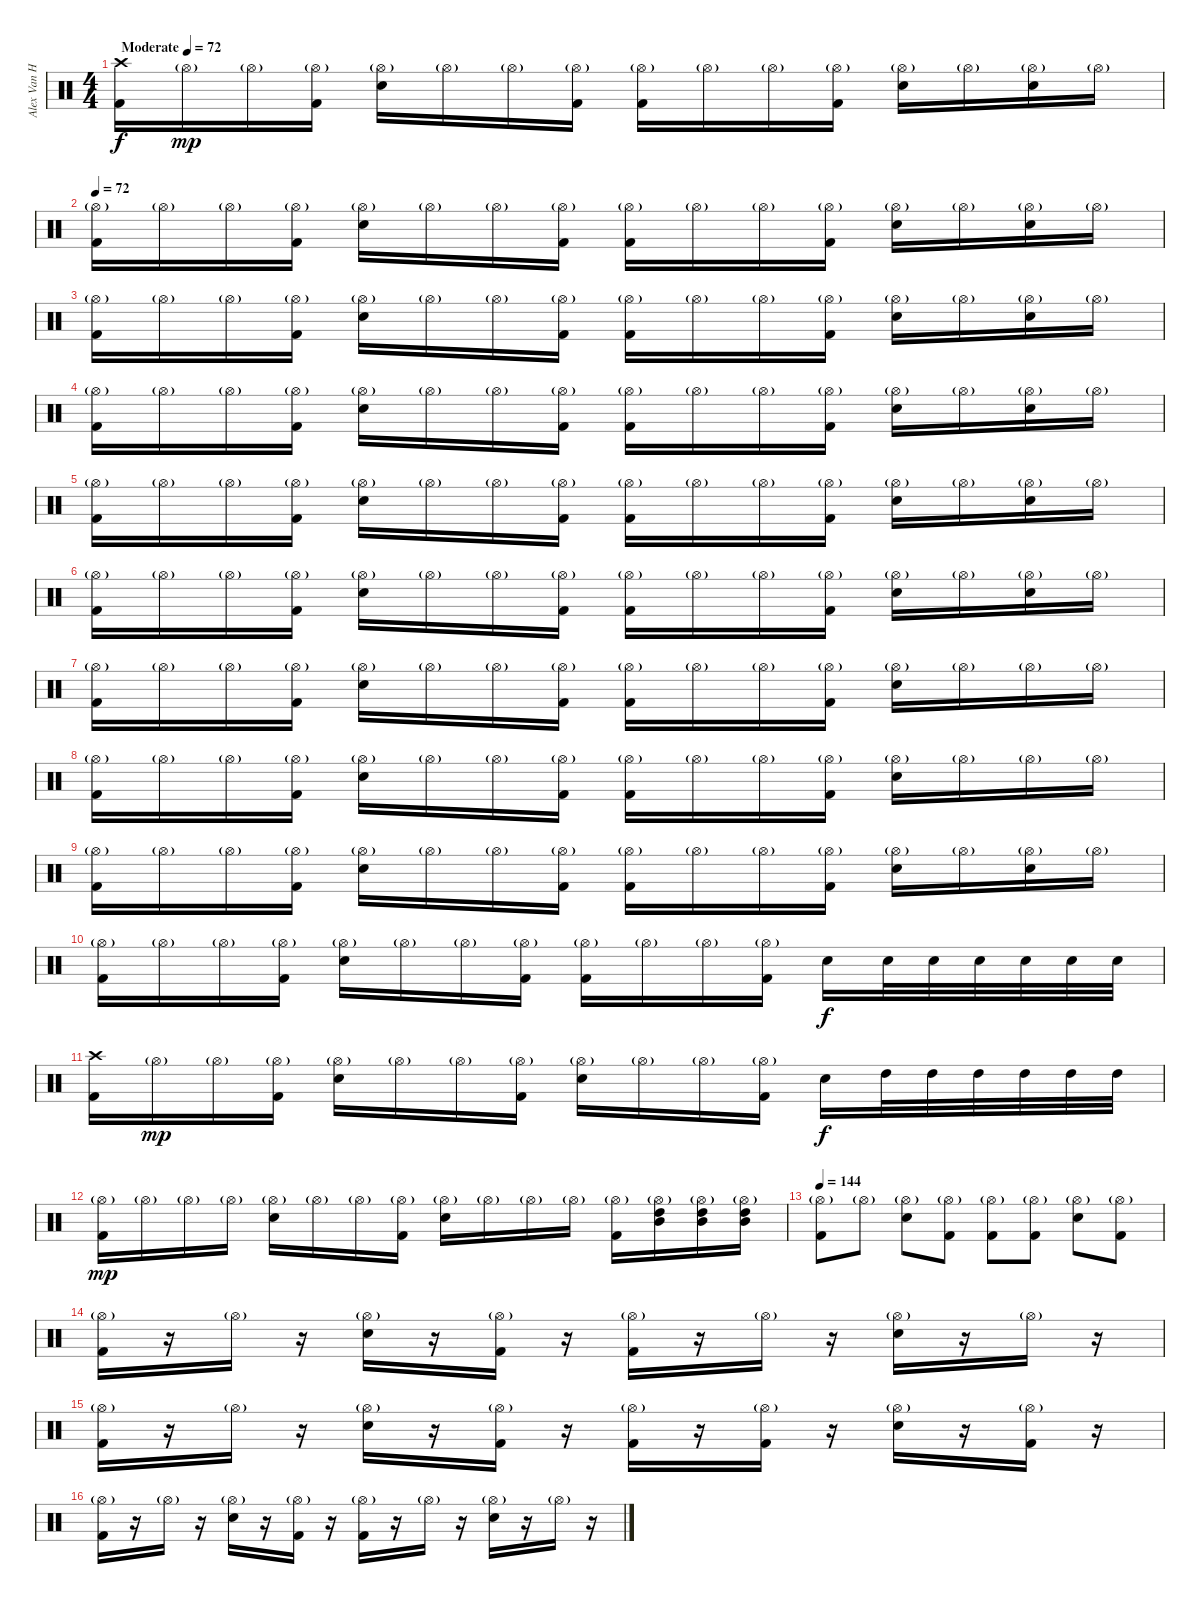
\track ("Alex Van Halen" "Alex Van H") {instrument percussion}
\staff {score}
\articulation defaults
\ts (4 4)
\tempo (72 "Moderate")
\clef neutral
\ks c
("Crash high (hit)" "Kick (hit) 2").16{dy f} "Hi-Hat (open)"{g}.16{dy mp} "Hi-Hat (open)"{g}.16 ("Hi-Hat (open)"{g} "Kick (hit) 2").16 ("Hi-Hat (open)"{g} "Electric Snare (hit)").16 "Hi-Hat (open)"{g}.16 "Hi-Hat (open)"{g}.16 ("Hi-Hat (open)"{g} "Kick (hit) 2").16 ("Hi-Hat (open)"{g} "Kick (hit) 2").16 "Hi-Hat (open)"{g}.16 "Hi-Hat (open)"{g}.16 ("Hi-Hat (open)"{g} "Kick (hit) 2").16 ("Hi-Hat (open)"{g} "Electric Snare (hit)").16 "Hi-Hat (open)"{g}.16 ("Hi-Hat (open)"{g} "Electric Snare (hit)").16 "Hi-Hat (open)"{g}.16 |
\tempo 72
("Hi-Hat (open)"{g} "Kick (hit) 2").16 "Hi-Hat (open)"{g}.16 "Hi-Hat (open)"{g}.16 ("Hi-Hat (open)"{g} "Kick (hit) 2").16 ("Hi-Hat (open)"{g} "Electric Snare (hit)").16 "Hi-Hat (open)"{g}.16 "Hi-Hat (open)"{g}.16 ("Hi-Hat (open)"{g} "Kick (hit) 2").16 ("Hi-Hat (open)"{g} "Kick (hit) 2").16 "Hi-Hat (open)"{g}.16 "Hi-Hat (open)"{g}.16 ("Hi-Hat (open)"{g} "Kick (hit) 2").16 ("Hi-Hat (open)"{g} "Electric Snare (hit)").16 "Hi-Hat (open)"{g}.16 ("Hi-Hat (open)"{g} "Electric Snare (hit)").16 "Hi-Hat (open)"{g}.16 |
("Hi-Hat (open)"{g} "Kick (hit) 2").16 "Hi-Hat (open)"{g}.16 "Hi-Hat (open)"{g}.16 ("Hi-Hat (open)"{g} "Kick (hit) 2").16 ("Hi-Hat (open)"{g} "Electric Snare (hit)").16 "Hi-Hat (open)"{g}.16 "Hi-Hat (open)"{g}.16 ("Hi-Hat (open)"{g} "Kick (hit) 2").16 ("Hi-Hat (open)"{g} "Kick (hit) 2").16 "Hi-Hat (open)"{g}.16 "Hi-Hat (open)"{g}.16 ("Hi-Hat (open)"{g} "Kick (hit) 2").16 ("Hi-Hat (open)"{g} "Electric Snare (hit)").16 "Hi-Hat (open)"{g}.16 ("Hi-Hat (open)"{g} "Electric Snare (hit)").16 "Hi-Hat (open)"{g}.16 |
("Hi-Hat (open)"{g} "Kick (hit) 2").16 "Hi-Hat (open)"{g}.16 "Hi-Hat (open)"{g}.16 ("Hi-Hat (open)"{g} "Kick (hit) 2").16 ("Hi-Hat (open)"{g} "Electric Snare (hit)").16 "Hi-Hat (open)"{g}.16 "Hi-Hat (open)"{g}.16 ("Hi-Hat (open)"{g} "Kick (hit) 2").16 ("Hi-Hat (open)"{g} "Kick (hit) 2").16 "Hi-Hat (open)"{g}.16 "Hi-Hat (open)"{g}.16 ("Hi-Hat (open)"{g} "Kick (hit) 2").16 ("Hi-Hat (open)"{g} "Electric Snare (hit)").16 "Hi-Hat (open)"{g}.16 ("Hi-Hat (open)"{g} "Electric Snare (hit)").16 "Hi-Hat (open)"{g}.16 |
("Hi-Hat (open)"{g} "Kick (hit) 2").16 "Hi-Hat (open)"{g}.16 "Hi-Hat (open)"{g}.16 ("Hi-Hat (open)"{g} "Kick (hit) 2").16 ("Hi-Hat (open)"{g} "Electric Snare (hit)").16 "Hi-Hat (open)"{g}.16 "Hi-Hat (open)"{g}.16 ("Hi-Hat (open)"{g} "Kick (hit) 2").16 ("Hi-Hat (open)"{g} "Kick (hit) 2").16 "Hi-Hat (open)"{g}.16 "Hi-Hat (open)"{g}.16 ("Hi-Hat (open)"{g} "Kick (hit) 2").16 ("Hi-Hat (open)"{g} "Electric Snare (hit)").16 "Hi-Hat (open)"{g}.16 ("Hi-Hat (open)"{g} "Electric Snare (hit)").16 "Hi-Hat (open)"{g}.16 |
("Hi-Hat (open)"{g} "Kick (hit) 2").16 "Hi-Hat (open)"{g}.16 "Hi-Hat (open)"{g}.16 ("Hi-Hat (open)"{g} "Kick (hit) 2").16 ("Hi-Hat (open)"{g} "Electric Snare (hit)").16 "Hi-Hat (open)"{g}.16 "Hi-Hat (open)"{g}.16 ("Hi-Hat (open)"{g} "Kick (hit) 2").16 ("Hi-Hat (open)"{g} "Kick (hit) 2").16 "Hi-Hat (open)"{g}.16 "Hi-Hat (open)"{g}.16 ("Hi-Hat (open)"{g} "Kick (hit) 2").16 ("Hi-Hat (open)"{g} "Electric Snare (hit)").16 "Hi-Hat (open)"{g}.16 ("Hi-Hat (open)"{g} "Electric Snare (hit)").16 "Hi-Hat (open)"{g}.16 |
("Hi-Hat (open)"{g} "Kick (hit) 2").16 "Hi-Hat (open)"{g}.16 "Hi-Hat (open)"{g}.16 ("Hi-Hat (open)"{g} "Kick (hit) 2").16 ("Hi-Hat (open)"{g} "Electric Snare (hit)").16 "Hi-Hat (open)"{g}.16 "Hi-Hat (open)"{g}.16 ("Hi-Hat (open)"{g} "Kick (hit) 2").16 ("Hi-Hat (open)"{g} "Kick (hit) 2").16 "Hi-Hat (open)"{g}.16 "Hi-Hat (open)"{g}.16 ("Hi-Hat (open)"{g} "Kick (hit) 2").16 ("Hi-Hat (open)"{g} "Electric Snare (hit)").16 "Hi-Hat (open)"{g}.16 "Hi-Hat (open)"{g}.16 "Hi-Hat (open)"{g}.16 |
("Hi-Hat (open)"{g} "Kick (hit) 2").16 "Hi-Hat (open)"{g}.16 "Hi-Hat (open)"{g}.16 ("Hi-Hat (open)"{g} "Kick (hit) 2").16 ("Hi-Hat (open)"{g} "Electric Snare (hit)").16 "Hi-Hat (open)"{g}.16 "Hi-Hat (open)"{g}.16 ("Hi-Hat (open)"{g} "Kick (hit) 2").16 ("Hi-Hat (open)"{g} "Kick (hit) 2").16 "Hi-Hat (open)"{g}.16 "Hi-Hat (open)"{g}.16 ("Hi-Hat (open)"{g} "Kick (hit) 2").16 ("Hi-Hat (open)"{g} "Electric Snare (hit)").16 "Hi-Hat (open)"{g}.16 "Hi-Hat (open)"{g}.16 "Hi-Hat (open)"{g}.16 |
("Hi-Hat (open)"{g} "Kick (hit) 2").16 "Hi-Hat (open)"{g}.16 "Hi-Hat (open)"{g}.16 ("Hi-Hat (open)"{g} "Kick (hit) 2").16 ("Hi-Hat (open)"{g} "Electric Snare (hit)").16 "Hi-Hat (open)"{g}.16 "Hi-Hat (open)"{g}.16 ("Hi-Hat (open)"{g} "Kick (hit) 2").16 ("Hi-Hat (open)"{g} "Kick (hit) 2").16 "Hi-Hat (open)"{g}.16 "Hi-Hat (open)"{g}.16 ("Hi-Hat (open)"{g} "Kick (hit) 2").16 ("Hi-Hat (open)"{g} "Electric Snare (hit)").16 "Hi-Hat (open)"{g}.16 ("Hi-Hat (open)"{g} "Electric Snare (hit)").16 "Hi-Hat (open)"{g}.16 |
("Hi-Hat (open)"{g} "Kick (hit) 2").16 "Hi-Hat (open)"{g}.16 "Hi-Hat (open)"{g}.16 ("Hi-Hat (open)"{g} "Kick (hit) 2").16 ("Hi-Hat (open)"{g} "Electric Snare (hit)").16 "Hi-Hat (open)"{g}.16 "Hi-Hat (open)"{g}.16 ("Hi-Hat (open)"{g} "Kick (hit) 2").16 ("Hi-Hat (open)"{g} "Kick (hit) 2").16 "Hi-Hat (open)"{g}.16 "Hi-Hat (open)"{g}.16 ("Hi-Hat (open)"{g} "Kick (hit) 2").16 "Electric Snare (hit)".16{dy f} "Electric Snare (hit)".32 "Electric Snare (hit)".32 "Electric Snare (hit)".32 "Electric Snare (hit)".32 "Electric Snare (hit)".32 "Electric Snare (hit)".32 |
("Crash high (hit)" "Kick (hit) 2").16 "Hi-Hat (open)"{g}.16{dy mp} "Hi-Hat (open)"{g}.16 ("Hi-Hat (open)"{g} "Kick (hit) 2").16 ("Hi-Hat (open)"{g} "Electric Snare (hit)").16 "Hi-Hat (open)"{g}.16 "Hi-Hat (open)"{g}.16 ("Hi-Hat (open)"{g} "Kick (hit) 2").16 ("Hi-Hat (open)"{g} "Electric Snare (hit)").16 "Hi-Hat (open)"{g}.16 "Hi-Hat (open)"{g}.16 ("Hi-Hat (open)"{g} "Kick (hit) 2").16 "Electric Snare (hit)".16{dy f} "High Tom (hit)".32 "High Tom (hit)".32 "High Tom (hit)".32 "High Tom (hit)".32 "High Tom (hit)".32 "High Tom (hit)".32 |
("Hi-Hat (open)"{g} "Kick (hit) 2").16{dy mp} "Hi-Hat (open)"{g}.16 "Hi-Hat (open)"{g}.16 "Hi-Hat (open)"{g}.16 ("Hi-Hat (open)"{g} "Electric Snare (hit)").16 "Hi-Hat (open)"{g}.16 "Hi-Hat (open)"{g}.16 ("Hi-Hat (open)"{g} "Kick (hit) 2").16 ("Hi-Hat (open)"{g} "Electric Snare (hit)").16 "Hi-Hat (open)"{g}.16 "Hi-Hat (open)"{g}.16 "Hi-Hat (open)"{g}.16 ("Hi-Hat (open)"{g} "Kick (hit) 2").16 ("Hi-Hat (open)"{g} "High Tom (hit)" "Mid Tom (hit)").16 ("Hi-Hat (open)"{g} "High Tom (hit)" "Mid Tom (hit)").16 ("Hi-Hat (open)"{g} "High Tom (hit)" "Mid Tom (hit)").16 |
\tempo 144
("Hi-Hat (open)"{g} "Kick (hit) 2").8 "Hi-Hat (open)"{g}.8 ("Hi-Hat (open)"{g} "Electric Snare (hit)").8 ("Hi-Hat (open)"{g} "Kick (hit) 2").8 ("Hi-Hat (open)"{g} "Kick (hit) 2").8 ("Hi-Hat (open)"{g} "Kick (hit) 2").8 ("Hi-Hat (open)"{g} "Electric Snare (hit)").8 ("Hi-Hat (open)"{g} "Kick (hit) 2").8 |
("Hi-Hat (open)"{g} "Kick (hit) 2").16 r.16 "Hi-Hat (open)"{g}.16 r.16 ("Hi-Hat (open)"{g} "Electric Snare (hit)").16 r.16 ("Hi-Hat (open)"{g} "Kick (hit) 2").16 r.16 ("Hi-Hat (open)"{g} "Kick (hit) 2").16 r.16 "Hi-Hat (open)"{g}.16 r.16 ("Hi-Hat (open)"{g} "Electric Snare (hit)").16 r.16 "Hi-Hat (open)"{g}.16 r.16 |
("Hi-Hat (open)"{g} "Kick (hit) 2").16 r.16 "Hi-Hat (open)"{g}.16 r.16 ("Hi-Hat (open)"{g} "Electric Snare (hit)").16 r.16 ("Hi-Hat (open)"{g} "Kick (hit) 2").16 r.16 ("Hi-Hat (open)"{g} "Kick (hit) 2").16 r.16 ("Hi-Hat (open)"{g} "Kick (hit) 2").16 r.16 ("Hi-Hat (open)"{g} "Electric Snare (hit)").16 r.16 ("Hi-Hat (open)"{g} "Kick (hit) 2").16 r.16 |
("Hi-Hat (open)"{g} "Kick (hit) 2").16 r.16 "Hi-Hat (open)"{g}.16 r.16 ("Hi-Hat (open)"{g} "Electric Snare (hit)").16 r.16 ("Hi-Hat (open)"{g} "Kick (hit) 2").16 r.16 ("Hi-Hat (open)"{g} "Kick (hit) 2").16 r.16 "Hi-Hat (open)"{g}.16 r.16 ("Hi-Hat (open)"{g} "Electric Snare (hit)").16 r.16 "Hi-Hat (open)"{g}.16 r.16
